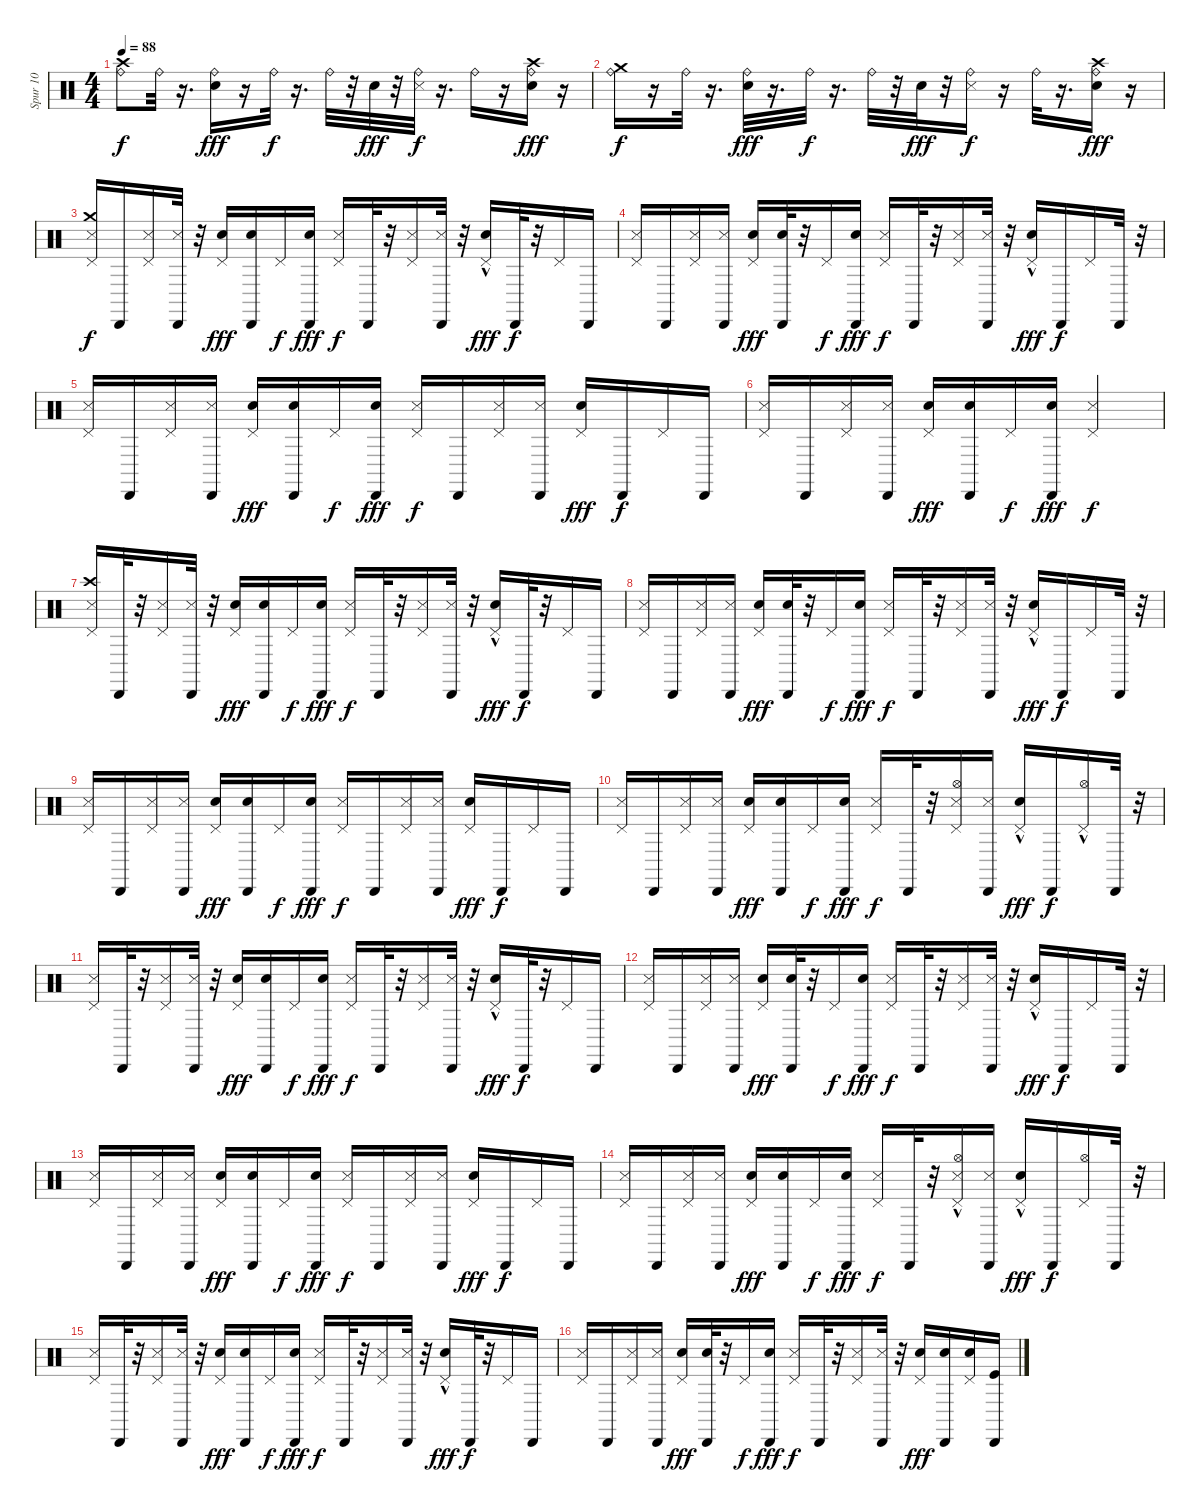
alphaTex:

\track ("Spur 10" "Spur 10") {instrument percussion}
\staff {score}
\articulation defaults
\ts (4 4)
\tempo 88
\clef neutral
\ks c
("Ride (bell)" "Crash high (hit)").8{dy f} "Ride (bell)".32 r.16{d} ("Ride (bell)" "Electric Snare (hit)").16{dy fff} r.16 "Ride (bell)".32{dy f} r.16{d} "Ride (bell)".32 r.32 "Electric Snare (hit)".32{dy fff} r.32 ("Metronome (hit)" "Ride (bell)").32{dy f} r.16{d} "Ride (bell)".16 r.16 ("Ride (bell)" "Electric Snare (hit)" "Crash high (hit)").16{dy fff} r.16 |
("Ride (bell)" "Crash medium (hit)").16{dy f} r.16 "Ride (bell)".32 r.16{d} ("Ride (bell)" "Electric Snare (hit)").32{dy fff} r.16{d} "Ride (bell)".32{dy f} r.16{d} "Ride (bell)".32 r.32 "Electric Snare (hit)".32{dy fff} r.32 ("Metronome (hit)" "Ride (bell)").16{dy f} r.16 "Ride (bell)".32 r.16{d} ("Ride (bell)" "Electric Snare (hit)" "Crash high (hit)").16{dy fff} r.16 |
("Metronome (hit)" "Pedal Hi-Hat (hit)" "Crash medium (hit)").16{dy f} "Cabasa (hit)".16 ("Metronome (hit)" "Pedal Hi-Hat (hit)").16 ("Metronome (hit)" "Cabasa (hit)").32 r.32 ("Pedal Hi-Hat (hit)" "Electric Snare (hit)").16{dy fff} ("Cabasa (hit)" "Electric Snare (hit)").16 "Pedal Hi-Hat (hit)".16{dy f} ("Cabasa (hit)" "Electric Snare (hit)").16{dy fff} ("Pedal Hi-Hat (hit)" "Metronome (hit)").16{dy f} "Cabasa (hit)".32 r.32 ("Pedal Hi-Hat (hit)" "Metronome (hit)").16 ("Cabasa (hit)" "Metronome (hit)").32 r.32 ("Pedal Hi-Hat (hit)" "Electric Snare (hit)"{hac}).16{dy fff} "Cabasa (hit)".32{dy f} r.32 "Pedal Hi-Hat (hit)".16 "Cabasa (hit)".16 |
("Pedal Hi-Hat (hit)" "Metronome (hit)").16 "Cabasa (hit)".16 ("Pedal Hi-Hat (hit)" "Metronome (hit)").16 ("Cabasa (hit)" "Metronome (hit)").16 ("Pedal Hi-Hat (hit)" "Electric Snare (hit)").16{dy fff} ("Cabasa (hit)" "Electric Snare (hit)").32 r.32 "Pedal Hi-Hat (hit)".16{dy f} ("Cabasa (hit)" "Electric Snare (hit)").16{dy fff} ("Pedal Hi-Hat (hit)" "Metronome (hit)").16{dy f} "Cabasa (hit)".32 r.32 ("Pedal Hi-Hat (hit)" "Metronome (hit)").16 ("Cabasa (hit)" "Metronome (hit)").32 r.32 ("Pedal Hi-Hat (hit)" "Electric Snare (hit)"{hac}).16{dy fff} "Cabasa (hit)".16{dy f} "Pedal Hi-Hat (hit)".16 "Cabasa (hit)".32 r.32 |
("Pedal Hi-Hat (hit)" "Metronome (hit)").16 "Cabasa (hit)".16 ("Pedal Hi-Hat (hit)" "Metronome (hit)").16 ("Cabasa (hit)" "Metronome (hit)").16 ("Pedal Hi-Hat (hit)" "Electric Snare (hit)").16{dy fff} ("Cabasa (hit)" "Electric Snare (hit)").16 "Pedal Hi-Hat (hit)".16{dy f} ("Cabasa (hit)" "Electric Snare (hit)").16{dy fff} ("Pedal Hi-Hat (hit)" "Metronome (hit)").16{dy f} "Cabasa (hit)".16 ("Pedal Hi-Hat (hit)" "Metronome (hit)").16 ("Cabasa (hit)" "Metronome (hit)").16 ("Pedal Hi-Hat (hit)" "Electric Snare (hit)").16{dy fff} "Cabasa (hit)".16{dy f} "Pedal Hi-Hat (hit)".16 "Cabasa (hit)".16 |
("Pedal Hi-Hat (hit)" "Metronome (hit)").16 "Cabasa (hit)".16 ("Metronome (hit)" "Pedal Hi-Hat (hit)").16 ("Metronome (hit)" "Cabasa (hit)").16 ("Pedal Hi-Hat (hit)" "Electric Snare (hit)").16{dy fff} ("Cabasa (hit)" "Electric Snare (hit)").16 "Pedal Hi-Hat (hit)".16{dy f} ("Cabasa (hit)" "Electric Snare (hit)").16{dy fff} ("Metronome (hit)" "Pedal Hi-Hat (hit)").2{dy f} |
("Pedal Hi-Hat (hit)" "Metronome (hit)" "Crash high (hit)").16 "Cabasa (hit)".32 r.32 ("Pedal Hi-Hat (hit)" "Metronome (hit)").16 ("Cabasa (hit)" "Metronome (hit)").32 r.32 ("Pedal Hi-Hat (hit)" "Electric Snare (hit)").16{dy fff} ("Cabasa (hit)" "Electric Snare (hit)").16 "Pedal Hi-Hat (hit)".16{dy f} ("Cabasa (hit)" "Electric Snare (hit)").16{dy fff} ("Pedal Hi-Hat (hit)" "Metronome (hit)").16{dy f} "Cabasa (hit)".32 r.32 ("Pedal Hi-Hat (hit)" "Metronome (hit)").16 ("Cabasa (hit)" "Metronome (hit)").32 r.32 ("Pedal Hi-Hat (hit)" "Electric Snare (hit)"{hac}).16{dy fff} "Cabasa (hit)".32{dy f} r.32 "Pedal Hi-Hat (hit)".16 "Cabasa (hit)".16 |
("Pedal Hi-Hat (hit)" "Metronome (hit)").16 "Cabasa (hit)".16 ("Pedal Hi-Hat (hit)" "Metronome (hit)").16 ("Cabasa (hit)" "Metronome (hit)").16 ("Pedal Hi-Hat (hit)" "Electric Snare (hit)").16{dy fff} ("Cabasa (hit)" "Electric Snare (hit)").32 r.32 "Pedal Hi-Hat (hit)".16{dy f} ("Cabasa (hit)" "Electric Snare (hit)").16{dy fff} ("Pedal Hi-Hat (hit)" "Metronome (hit)").16{dy f} "Cabasa (hit)".32 r.32 ("Pedal Hi-Hat (hit)" "Metronome (hit)").16 ("Cabasa (hit)" "Metronome (hit)").32 r.32 ("Pedal Hi-Hat (hit)" "Electric Snare (hit)"{hac}).16{dy fff} "Cabasa (hit)".16{dy f} "Pedal Hi-Hat (hit)".16 "Cabasa (hit)".32 r.32 |
("Pedal Hi-Hat (hit)" "Metronome (hit)").16 "Cabasa (hit)".16 ("Pedal Hi-Hat (hit)" "Metronome (hit)").16 ("Cabasa (hit)" "Metronome (hit)").16 ("Pedal Hi-Hat (hit)" "Electric Snare (hit)").16{dy fff} ("Cabasa (hit)" "Electric Snare (hit)").16 "Pedal Hi-Hat (hit)".16{dy f} ("Cabasa (hit)" "Electric Snare (hit)").16{dy fff} ("Pedal Hi-Hat (hit)" "Metronome (hit)").16{dy f} "Cabasa (hit)".16 ("Pedal Hi-Hat (hit)" "Metronome (hit)").16 ("Cabasa (hit)" "Metronome (hit)").16 ("Pedal Hi-Hat (hit)" "Electric Snare (hit)").16{dy fff} "Cabasa (hit)".16{dy f} "Pedal Hi-Hat (hit)".16 "Cabasa (hit)".16 |
("Pedal Hi-Hat (hit)" "Metronome (hit)").16 "Cabasa (hit)".16 ("Metronome (hit)" "Pedal Hi-Hat (hit)").16 ("Metronome (hit)" "Cabasa (hit)").16 ("Pedal Hi-Hat (hit)" "Electric Snare (hit)").16{dy fff} ("Cabasa (hit)" "Electric Snare (hit)").16 "Pedal Hi-Hat (hit)".16{dy f} ("Cabasa (hit)" "Electric Snare (hit)").16{dy fff} ("Metronome (hit)" "Pedal Hi-Hat (hit)").16{dy f} "Cabasa (hit)".32 r.32 ("Pedal Hi-Hat (hit)" "Metronome (hit)" "Hi-Hat (open)").16 ("Cabasa (hit)" "Metronome (hit)").16 ("Pedal Hi-Hat (hit)" "Electric Snare (hit)"{hac}).16{dy fff} "Cabasa (hit)".16{dy f} ("Pedal Hi-Hat (hit)" "Hi-Hat (open)"{hac}).16 "Cabasa (hit)".32 r.32 |
("Pedal Hi-Hat (hit)" "Metronome (hit)").16 "Cabasa (hit)".32 r.32 ("Pedal Hi-Hat (hit)" "Metronome (hit)").16 ("Cabasa (hit)" "Metronome (hit)").32 r.32 ("Pedal Hi-Hat (hit)" "Electric Snare (hit)").16{dy fff} ("Cabasa (hit)" "Electric Snare (hit)").16 "Pedal Hi-Hat (hit)".16{dy f} ("Cabasa (hit)" "Electric Snare (hit)").16{dy fff} ("Pedal Hi-Hat (hit)" "Metronome (hit)").16{dy f} "Cabasa (hit)".32 r.32 ("Pedal Hi-Hat (hit)" "Metronome (hit)").16 ("Cabasa (hit)" "Metronome (hit)").32 r.32 ("Pedal Hi-Hat (hit)" "Electric Snare (hit)"{hac}).16{dy fff} "Cabasa (hit)".32{dy f} r.32 "Pedal Hi-Hat (hit)".16 "Cabasa (hit)".16 |
("Pedal Hi-Hat (hit)" "Metronome (hit)").16 "Cabasa (hit)".16 ("Pedal Hi-Hat (hit)" "Metronome (hit)").16 ("Cabasa (hit)" "Metronome (hit)").16 ("Pedal Hi-Hat (hit)" "Electric Snare (hit)").16{dy fff} ("Cabasa (hit)" "Electric Snare (hit)").32 r.32 "Pedal Hi-Hat (hit)".16{dy f} ("Cabasa (hit)" "Electric Snare (hit)").16{dy fff} ("Pedal Hi-Hat (hit)" "Metronome (hit)").16{dy f} "Cabasa (hit)".32 r.32 ("Pedal Hi-Hat (hit)" "Metronome (hit)").16 ("Cabasa (hit)" "Metronome (hit)").32 r.32 ("Pedal Hi-Hat (hit)" "Electric Snare (hit)"{hac}).16{dy fff} "Cabasa (hit)".16{dy f} "Pedal Hi-Hat (hit)".16 "Cabasa (hit)".32 r.32 |
("Pedal Hi-Hat (hit)" "Metronome (hit)").16 "Cabasa (hit)".16 ("Pedal Hi-Hat (hit)" "Metronome (hit)").16 ("Cabasa (hit)" "Metronome (hit)").16 ("Pedal Hi-Hat (hit)" "Electric Snare (hit)").16{dy fff} ("Cabasa (hit)" "Electric Snare (hit)").16 "Pedal Hi-Hat (hit)".16{dy f} ("Cabasa (hit)" "Electric Snare (hit)").16{dy fff} ("Pedal Hi-Hat (hit)" "Metronome (hit)").16{dy f} "Cabasa (hit)".16 ("Pedal Hi-Hat (hit)" "Metronome (hit)").16 ("Cabasa (hit)" "Metronome (hit)").16 ("Pedal Hi-Hat (hit)" "Electric Snare (hit)").16{dy fff} "Cabasa (hit)".16{dy f} "Pedal Hi-Hat (hit)".16 "Cabasa (hit)".16 |
("Pedal Hi-Hat (hit)" "Metronome (hit)").16 "Cabasa (hit)".16 ("Metronome (hit)" "Pedal Hi-Hat (hit)").16 ("Metronome (hit)" "Cabasa (hit)").16 ("Pedal Hi-Hat (hit)" "Electric Snare (hit)").16{dy fff} ("Cabasa (hit)" "Electric Snare (hit)").16 "Pedal Hi-Hat (hit)".16{dy f} ("Cabasa (hit)" "Electric Snare (hit)").16{dy fff} ("Metronome (hit)" "Pedal Hi-Hat (hit)").16{dy f} "Cabasa (hit)".32 r.32 ("Pedal Hi-Hat (hit)" "Metronome (hit)" "Hi-Hat (open)"{hac}).16 ("Cabasa (hit)" "Metronome (hit)").16 ("Pedal Hi-Hat (hit)" "Electric Snare (hit)"{hac}).16{dy fff} "Cabasa (hit)".16{dy f} ("Pedal Hi-Hat (hit)" "Hi-Hat (open)").16 "Cabasa (hit)".32 r.32 |
("Pedal Hi-Hat (hit)" "Metronome (hit)").16 "Cabasa (hit)".32 r.32 ("Pedal Hi-Hat (hit)" "Metronome (hit)").16 ("Cabasa (hit)" "Metronome (hit)").32 r.32 ("Pedal Hi-Hat (hit)" "Electric Snare (hit)").16{dy fff} ("Cabasa (hit)" "Electric Snare (hit)").16 "Pedal Hi-Hat (hit)".16{dy f} ("Cabasa (hit)" "Electric Snare (hit)").16{dy fff} ("Pedal Hi-Hat (hit)" "Metronome (hit)").16{dy f} "Cabasa (hit)".32 r.32 ("Pedal Hi-Hat (hit)" "Metronome (hit)").16 ("Cabasa (hit)" "Metronome (hit)").32 r.32 ("Pedal Hi-Hat (hit)" "Electric Snare (hit)"{hac}).16{dy fff} "Cabasa (hit)".32{dy f} r.32 "Pedal Hi-Hat (hit)".16 "Cabasa (hit)".16 |
("Pedal Hi-Hat (hit)" "Metronome (hit)").16 "Cabasa (hit)".16 ("Pedal Hi-Hat (hit)" "Metronome (hit)").16 ("Cabasa (hit)" "Metronome (hit)").16 ("Pedal Hi-Hat (hit)" "Electric Snare (hit)").16{dy fff} ("Cabasa (hit)" "Electric Snare (hit)").32 r.32 "Pedal Hi-Hat (hit)".16{dy f} ("Cabasa (hit)" "Electric Snare (hit)").16{dy fff} ("Pedal Hi-Hat (hit)" "Metronome (hit)").16{dy f} "Cabasa (hit)".32 r.32 ("Pedal Hi-Hat (hit)" "Metronome (hit)").16 ("Cabasa (hit)" "Metronome (hit)").32 r.32 ("Pedal Hi-Hat (hit)" "Electric Snare (hit)").16{dy fff} ("Cabasa (hit)" "Electric Snare (hit)").16 ("Pedal Hi-Hat (hit)" "Electric Snare (hit)").16 ("Cabasa (hit)" "Kick (hit)").16
